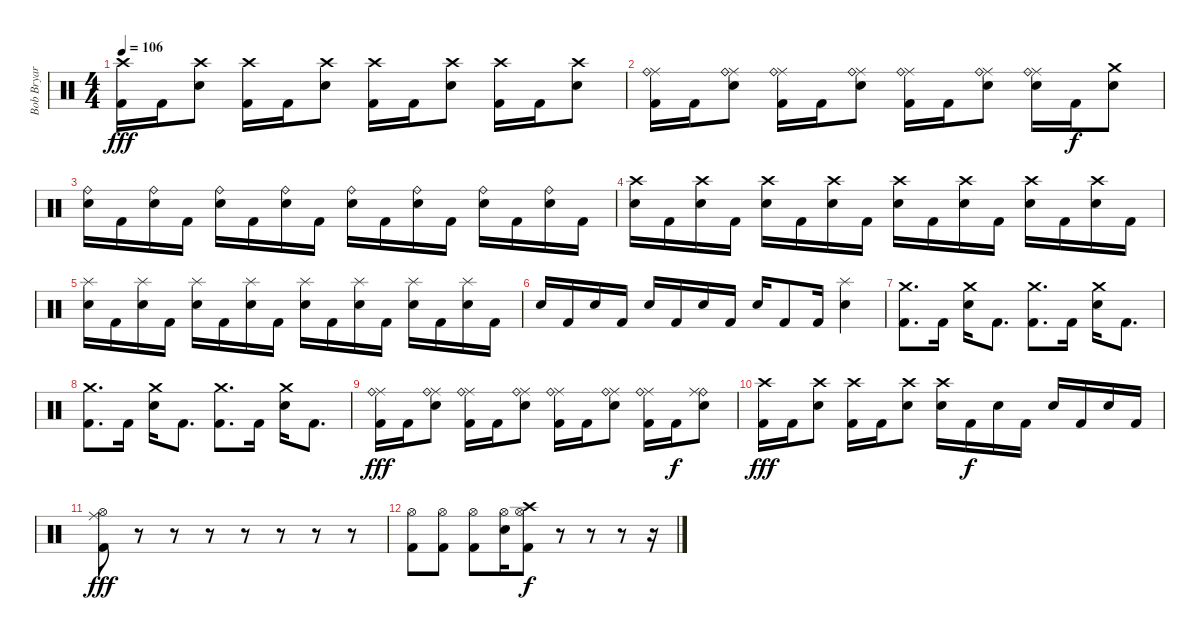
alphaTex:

\track ("Bob Bryar" "Bob Bryar") {instrument percussion}
\staff {score}
\articulation defaults
\ts (4 4)
\tempo 106
\clef neutral
\ks c
("Kick (hit) 2" "Crash high (hit)").16{dy fff} "Kick (hit) 2".16 ("Electric Snare (hit)" "Crash high (hit)").8 ("Kick (hit) 2" "Crash high (hit)").16 "Kick (hit) 2".16 ("Electric Snare (hit)" "Crash high (hit)").8 ("Kick (hit) 2" "Crash high (hit)").16 "Kick (hit) 2".16 ("Electric Snare (hit)" "Crash high (hit)").8 ("Kick (hit) 2" "Crash high (hit)").16 "Kick (hit) 2".16 ("Electric Snare (hit)" "Crash high (hit)").8 |
("Kick (hit) 2" "Ride (middle)" "Ride (bell)").16 "Kick (hit) 2".16 ("Electric Snare (hit)" "Ride (middle)" "Ride (bell)").8 ("Kick (hit) 2" "Ride (middle)" "Ride (bell)").16 "Kick (hit) 2".16 ("Electric Snare (hit)" "Ride (middle)" "Ride (bell)").8 ("Kick (hit) 2" "Ride (middle)" "Ride (bell)").16 "Kick (hit) 2".16 ("Electric Snare (hit)" "Ride (middle)" "Ride (bell)").8 ("Electric Snare (hit)" "Ride (middle)" "Ride (bell)").16 "Kick (hit) 2".16{dy f} ("Crash medium (hit)" "Electric Snare (hit)").8 |
("Electric Snare (hit)" "Ride (bell)").16 "Kick (hit) 2".16 ("Electric Snare (hit)" "Ride (bell)").16 "Kick (hit) 2".16 ("Electric Snare (hit)" "Ride (bell)").16 "Kick (hit) 2".16 ("Electric Snare (hit)" "Ride (bell)").16 "Kick (hit) 2".16 ("Electric Snare (hit)" "Ride (bell)").16 "Kick (hit) 2".16 ("Electric Snare (hit)" "Ride (bell)").16 "Kick (hit) 2".16 ("Electric Snare (hit)" "Ride (bell)").16 "Kick (hit) 2".16 ("Electric Snare (hit)" "Ride (bell)").16 "Kick (hit) 2".16 |
("Electric Snare (hit)" "Crash high (hit)").16 "Kick (hit) 2".16 ("Electric Snare (hit)" "Crash high (hit)").16 "Kick (hit) 2".16 ("Electric Snare (hit)" "Crash high (hit)").16 "Kick (hit) 2".16 ("Electric Snare (hit)" "Crash high (hit)").16 "Kick (hit) 2".16 ("Electric Snare (hit)" "Crash high (hit)").16 "Kick (hit) 2".16 ("Electric Snare (hit)" "Crash high (hit)").16 "Kick (hit) 2".16 ("Electric Snare (hit)" "Crash high (hit)").16 "Kick (hit) 2".16 ("Electric Snare (hit)" "Crash high (hit)").16 "Kick (hit) 2".16 |
("Electric Snare (hit)" "Splash (hit)").16 "Kick (hit) 2".16 ("Electric Snare (hit)" "Splash (hit)").16 "Kick (hit) 2".16 ("Electric Snare (hit)" "Splash (hit)").16 "Kick (hit) 2".16 ("Electric Snare (hit)" "Splash (hit)").16 "Kick (hit) 2".16 ("Electric Snare (hit)" "Splash (hit)").16 "Kick (hit) 2".16 ("Electric Snare (hit)" "Splash (hit)").16 "Kick (hit) 2".16 ("Electric Snare (hit)" "Splash (hit)").16 "Kick (hit) 2".16 ("Electric Snare (hit)" "Splash (hit)").16 "Kick (hit) 2".16 |
"Electric Snare (hit)".16 "Kick (hit) 2".16 "Electric Snare (hit)".16 "Kick (hit) 2".16 "Electric Snare (hit)".16 "Kick (hit) 2".16 "Electric Snare (hit)".16 "Kick (hit) 2".16 "Electric Snare (hit)".16 "Kick (hit) 2".8 "Kick (hit) 2".16 ("Electric Snare (hit)" "Splash (hit)").4 |
("Kick (hit) 2" "Crash medium (hit)").8{d} "Kick (hit) 2".16 ("Electric Snare (hit)" "Crash medium (hit)").16 "Kick (hit) 2".8{d} ("Kick (hit) 2" "Crash medium (hit)").8{d} "Kick (hit) 2".16 ("Electric Snare (hit)" "Crash medium (hit)").16 "Kick (hit) 2".8{d} |
("Kick (hit) 2" "Crash medium (hit)").8{d} "Kick (hit) 2".16 ("Electric Snare (hit)" "Crash medium (hit)").16 "Kick (hit) 2".8{d} ("Kick (hit) 2" "Crash medium (hit)").8{d} "Kick (hit) 2".16 ("Electric Snare (hit)" "Crash medium (hit)").16 "Kick (hit) 2".8{d} |
("Kick (hit) 2" "Ride (middle)" "Ride (bell)").16{dy fff} "Kick (hit) 2".16 ("Electric Snare (hit)" "Ride (middle)" "Ride (bell)").8 ("Kick (hit) 2" "Ride (middle)" "Ride (bell)").16 "Kick (hit) 2".16 ("Electric Snare (hit)" "Ride (middle)" "Ride (bell)").8 ("Kick (hit) 2" "Ride (middle)" "Ride (bell)").16 "Kick (hit) 2".16 ("Electric Snare (hit)" "Ride (middle)" "Ride (bell)").8 ("Kick (hit) 2" "Ride (middle)" "Ride (bell)").16 "Kick (hit) 2".16{dy f} ("Ride (bell)" "Electric Snare (hit)" "Ride (middle)").8 |
("Kick (hit) 2" "Crash high (hit)").16{dy fff} "Kick (hit) 2".16 ("Electric Snare (hit)" "Crash high (hit)").8 ("Kick (hit) 2" "Crash high (hit)").16 "Kick (hit) 2".16 ("Electric Snare (hit)" "Crash high (hit)").8 ("Electric Snare (hit)" "Crash high (hit)").16 "Kick (hit) 2".16{dy f} "Electric Snare (hit)".16 "Kick (hit) 2".16 "Electric Snare (hit)".16 "Kick (hit) 2".16 "Electric Snare (hit)".16 "Kick (hit) 2".16 |
("Kick (hit) 2" "Hi-Hat (open)" "Ride (middle)").8{dy fff} r.8 r.8 r.8 r.8 r.8 r.8 r.8 |
("Kick (hit) 2" "Hi-Hat (open)").8 ("Kick (hit) 2" "Hi-Hat (open)").8 ("Kick (hit) 2" "Hi-Hat (open)").8 ("Electric Snare (hit)" "Hi-Hat (open)").16 ("Kick (hit) 2" "Hi-Hat (open)" "Crash high (hit)").8{dy f} r.8 r.8 r.8 r.16
